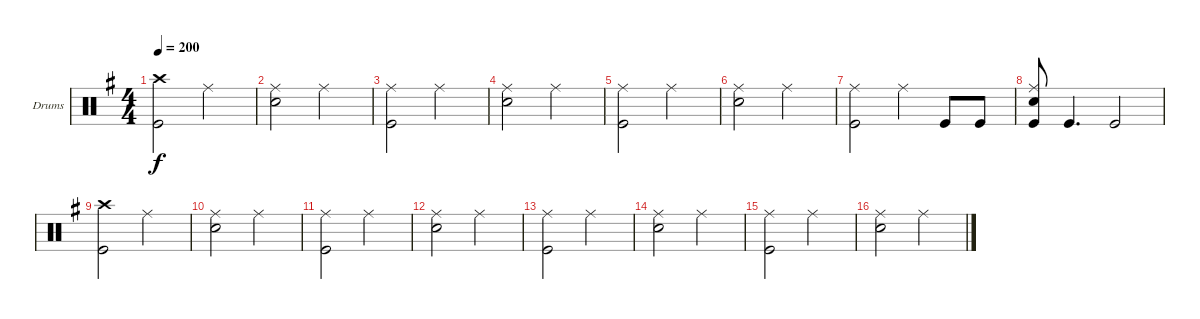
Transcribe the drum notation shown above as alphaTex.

\bracketExtendMode groupsimilarinstruments
\firstSystemTrackNameOrientation horizontal
\otherSystemsTrackNameOrientation horizontal
\track ("Drumkit" "Drums") {instrument percussion}
\staff {score}
\articulation defaults
\ts (4 4)
\tempo 200
\clef neutral
\ks g
("Crash high (hit)" "Kick (hit)").2{dy f} "Ride (middle)".2 |
("Ride (middle)" "Snare (hit) 2").2 "Ride (middle)".2 |
("Ride (middle)" "Kick (hit)").2 "Ride (middle)".2 |
("Ride (middle)" "Snare (hit) 2").2 "Ride (middle)".2 |
("Ride (middle)" "Kick (hit)").2 "Ride (middle)".2 |
("Ride (middle)" "Snare (hit) 2").2 "Ride (middle)".2 |
("Ride (middle)" "Kick (hit)").2 "Ride (middle)".4 "Kick (hit)".8 "Kick (hit)".8 |
("Ride (middle)" "Snare (hit) 2" "Kick (hit)").8 "Kick (hit)".4{d} "Kick (hit)".2 |
("Crash high (hit)" "Kick (hit)").2 "Ride (middle)".2 |
("Ride (middle)" "Snare (hit) 2").2 "Ride (middle)".2 |
("Ride (middle)" "Kick (hit)").2 "Ride (middle)".2 |
("Ride (middle)" "Snare (hit) 2").2 "Ride (middle)".2 |
("Ride (middle)" "Kick (hit)").2 "Ride (middle)".2 |
("Ride (middle)" "Snare (hit) 2").2 "Ride (middle)".2 |
("Ride (middle)" "Kick (hit)").2 "Ride (middle)".2 |
("Ride (middle)" "Snare (hit) 2").2 "Ride (middle)".2
